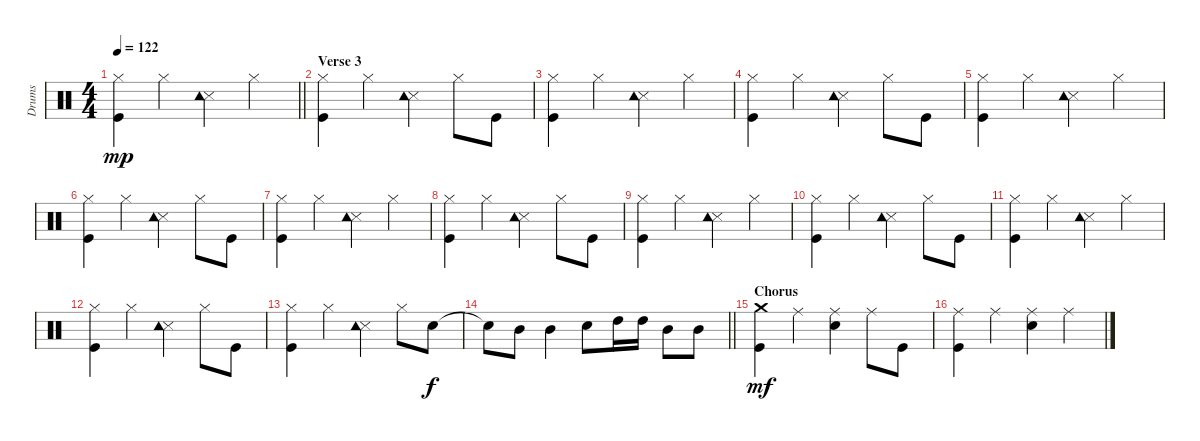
\track ("Drums" "Drums") {instrument percussion}
\staff {score}
\articulation defaults
\ts (4 4)
\tempo 122
\clef neutral
\barLineRight lightlight
\ks c
("Kick (hit)" "Hi-Hat (closed)").4{dy mp} "Hi-Hat (closed)".4 ("Snare (side stick) 3" "Tambourine (hit)").4 "Hi-Hat (closed)".4 |
\section ("" "Verse 3")
("Kick (hit)" "Hi-Hat (closed)").4 "Hi-Hat (closed)".4 ("Snare (side stick) 3" "Tambourine (hit)").4 "Hi-Hat (closed)".8 "Kick (hit)".8 |
("Kick (hit)" "Hi-Hat (closed)").4 "Hi-Hat (closed)".4 ("Snare (side stick) 3" "Tambourine (hit)").4 "Hi-Hat (closed)".4 |
("Kick (hit)" "Hi-Hat (closed)").4 "Hi-Hat (closed)".4 ("Snare (side stick) 3" "Tambourine (hit)").4 "Hi-Hat (closed)".8 "Kick (hit)".8 |
("Kick (hit)" "Hi-Hat (closed)").4 "Hi-Hat (closed)".4 ("Snare (side stick) 3" "Tambourine (hit)").4 "Hi-Hat (closed)".4 |
("Kick (hit)" "Hi-Hat (closed)").4 "Hi-Hat (closed)".4 ("Snare (side stick) 3" "Tambourine (hit)").4 "Hi-Hat (closed)".8 "Kick (hit)".8 |
("Kick (hit)" "Hi-Hat (closed)").4 "Hi-Hat (closed)".4 ("Snare (side stick) 3" "Tambourine (hit)").4 "Hi-Hat (closed)".4 |
("Kick (hit)" "Hi-Hat (closed)").4 "Hi-Hat (closed)".4 ("Snare (side stick) 3" "Tambourine (hit)").4 "Hi-Hat (closed)".8 "Kick (hit)".8 |
("Kick (hit)" "Hi-Hat (closed)").4 "Hi-Hat (closed)".4 ("Snare (side stick) 3" "Tambourine (hit)").4 "Hi-Hat (closed)".4 |
("Kick (hit)" "Hi-Hat (closed)").4 "Hi-Hat (closed)".4 ("Snare (side stick) 3" "Tambourine (hit)").4 "Hi-Hat (closed)".8 "Kick (hit)".8 |
("Kick (hit)" "Hi-Hat (closed)").4 "Hi-Hat (closed)".4 ("Snare (side stick) 3" "Tambourine (hit)").4 "Hi-Hat (closed)".4 |
("Kick (hit)" "Hi-Hat (closed)").4 "Hi-Hat (closed)".4 ("Snare (side stick) 3" "Tambourine (hit)").4 "Hi-Hat (closed)".8 "Kick (hit)".8 |
("Kick (hit)" "Hi-Hat (closed)").4 "Hi-Hat (closed)".4 ("Snare (side stick) 3" "Tambourine (hit)").4 "Hi-Hat (closed)".8 "Snare (hit) 2".8{dy f} |
\barLineRight lightlight "Snare (hit) 2"{t}.8 "Mid Tom (hit)".8 "Mid Tom (hit)".4 "Snare (hit) 2".8 "High Tom (hit)".16 "High Tom (hit)".16 "Mid Tom (hit)".8 "Mid Tom (hit)".8
|
\section ("" "Chorus")
("Kick (hit)" "Crash medium (hit)").4{dy mf} "Ride (middle)".4 ("Snare (hit) 2" "Ride (middle)").4 "Ride (middle)".8 "Kick (hit)".8 |
("Kick (hit)" "Ride (middle)").4 "Ride (middle)".4 ("Snare (hit) 2" "Ride (middle)").4 "Ride (middle)".4
